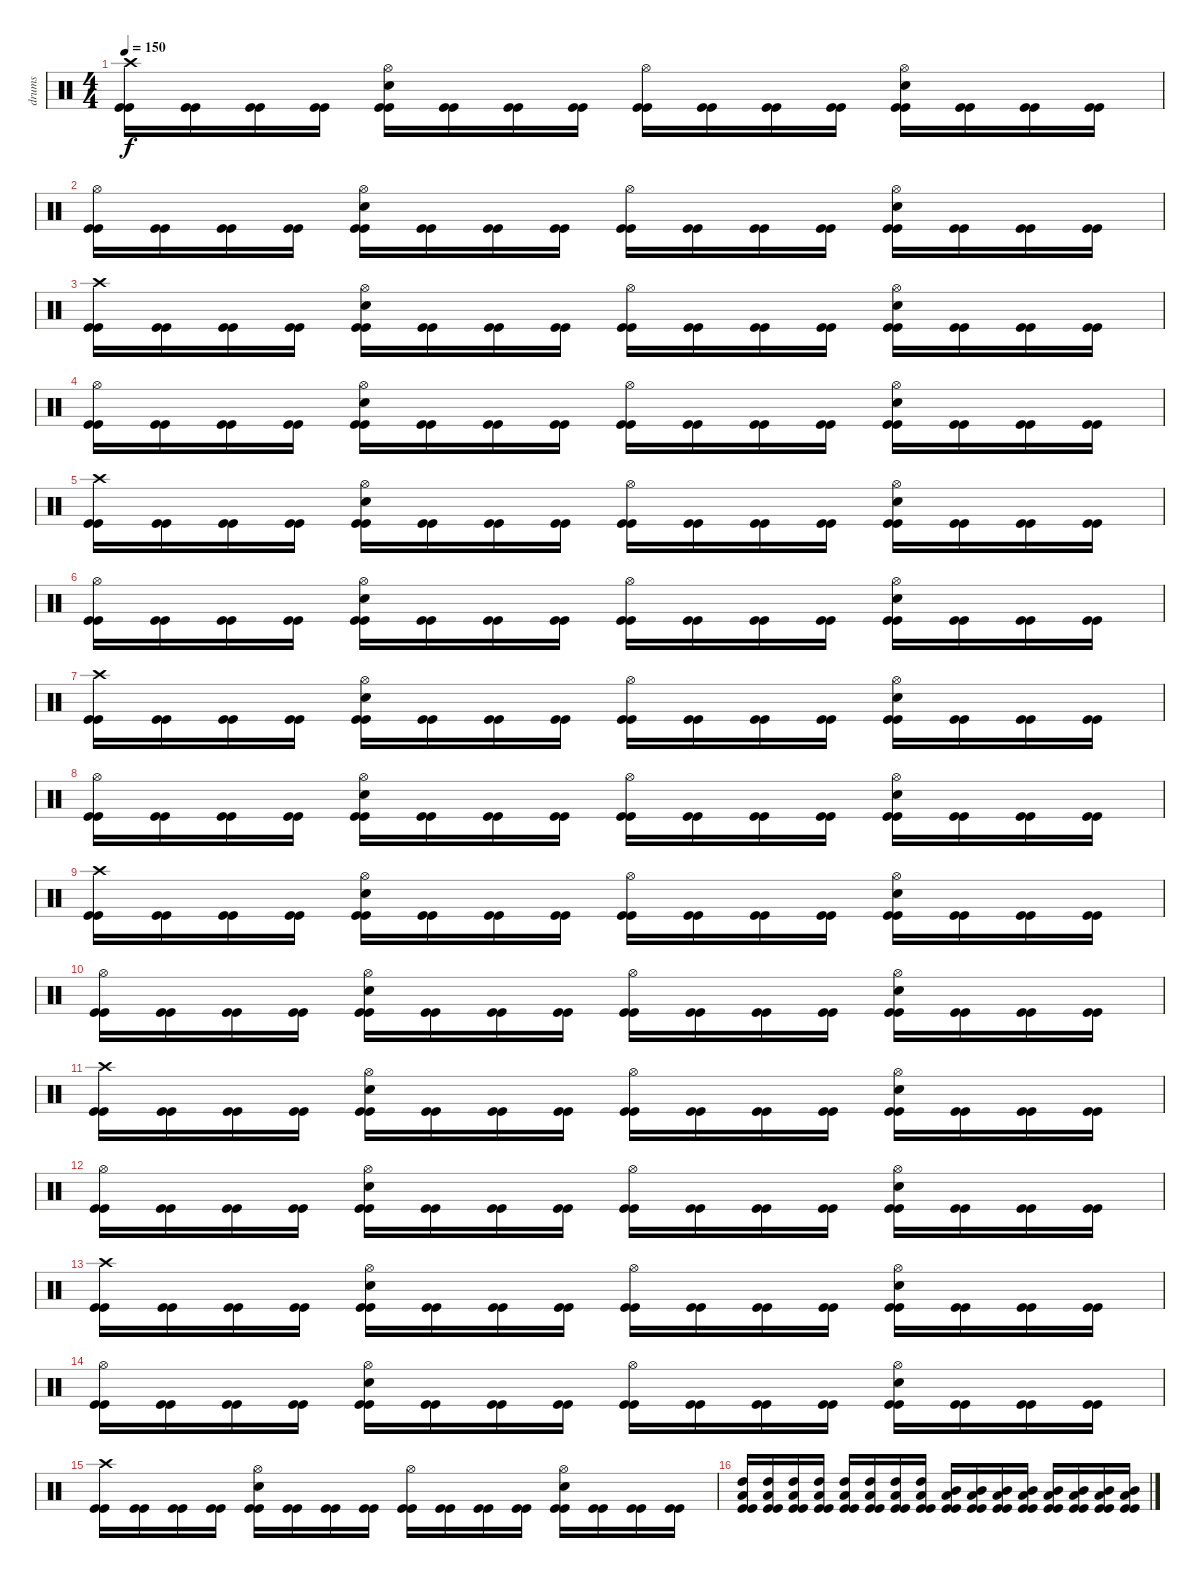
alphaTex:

\track ("drums" "drums") {instrument percussion}
\staff {score}
\articulation defaults
\ts (4 4)
\tempo 150
\clef neutral
\ks c
("Crash high (hit)" "Kick (hit)" "Kick (hit)").16{dy f} ("Kick (hit)" "Kick (hit)").16 ("Kick (hit)" "Kick (hit)").16 ("Kick (hit)" "Kick (hit)").16 ("Electric Snare (hit)" "Hi-Hat (open)" "Kick (hit)" "Kick (hit)").16 ("Kick (hit)" "Kick (hit)").16 ("Kick (hit)" "Kick (hit)").16 ("Kick (hit)" "Kick (hit)").16 ("Hi-Hat (open)" "Kick (hit)" "Kick (hit)").16 ("Kick (hit)" "Kick (hit)").16 ("Kick (hit)" "Kick (hit)").16 ("Kick (hit)" "Kick (hit)").16 ("Electric Snare (hit)" "Hi-Hat (open)" "Kick (hit)" "Kick (hit)").16 ("Kick (hit)" "Kick (hit)").16 ("Kick (hit)" "Kick (hit)").16 ("Kick (hit)" "Kick (hit)").16 |
("Hi-Hat (open)" "Kick (hit)" "Kick (hit)").16 ("Kick (hit)" "Kick (hit)").16 ("Kick (hit)" "Kick (hit)").16 ("Kick (hit)" "Kick (hit)").16 ("Electric Snare (hit)" "Hi-Hat (open)" "Kick (hit)" "Kick (hit)").16 ("Kick (hit)" "Kick (hit)").16 ("Kick (hit)" "Kick (hit)").16 ("Kick (hit)" "Kick (hit)").16 ("Hi-Hat (open)" "Kick (hit)" "Kick (hit)").16 ("Kick (hit)" "Kick (hit)").16 ("Kick (hit)" "Kick (hit)").16 ("Kick (hit)" "Kick (hit)").16 ("Electric Snare (hit)" "Hi-Hat (open)" "Kick (hit)" "Kick (hit)").16 ("Kick (hit)" "Kick (hit)").16 ("Kick (hit)" "Kick (hit)").16 ("Kick (hit)" "Kick (hit)").16 |
("Crash high (hit)" "Kick (hit)" "Kick (hit)").16 ("Kick (hit)" "Kick (hit)").16 ("Kick (hit)" "Kick (hit)").16 ("Kick (hit)" "Kick (hit)").16 ("Electric Snare (hit)" "Hi-Hat (open)" "Kick (hit)" "Kick (hit)").16 ("Kick (hit)" "Kick (hit)").16 ("Kick (hit)" "Kick (hit)").16 ("Kick (hit)" "Kick (hit)").16 ("Hi-Hat (open)" "Kick (hit)" "Kick (hit)").16 ("Kick (hit)" "Kick (hit)").16 ("Kick (hit)" "Kick (hit)").16 ("Kick (hit)" "Kick (hit)").16 ("Electric Snare (hit)" "Hi-Hat (open)" "Kick (hit)" "Kick (hit)").16 ("Kick (hit)" "Kick (hit)").16 ("Kick (hit)" "Kick (hit)").16 ("Kick (hit)" "Kick (hit)").16 |
("Hi-Hat (open)" "Kick (hit)" "Kick (hit)").16 ("Kick (hit)" "Kick (hit)").16 ("Kick (hit)" "Kick (hit)").16 ("Kick (hit)" "Kick (hit)").16 ("Electric Snare (hit)" "Hi-Hat (open)" "Kick (hit)" "Kick (hit)").16 ("Kick (hit)" "Kick (hit)").16 ("Kick (hit)" "Kick (hit)").16 ("Kick (hit)" "Kick (hit)").16 ("Hi-Hat (open)" "Kick (hit)" "Kick (hit)").16 ("Kick (hit)" "Kick (hit)").16 ("Kick (hit)" "Kick (hit)").16 ("Kick (hit)" "Kick (hit)").16 ("Electric Snare (hit)" "Hi-Hat (open)" "Kick (hit)" "Kick (hit)").16 ("Kick (hit)" "Kick (hit)").16 ("Kick (hit)" "Kick (hit)").16 ("Kick (hit)" "Kick (hit)").16 |
("Crash high (hit)" "Kick (hit)" "Kick (hit)").16 ("Kick (hit)" "Kick (hit)").16 ("Kick (hit)" "Kick (hit)").16 ("Kick (hit)" "Kick (hit)").16 ("Electric Snare (hit)" "Hi-Hat (open)" "Kick (hit)" "Kick (hit)").16 ("Kick (hit)" "Kick (hit)").16 ("Kick (hit)" "Kick (hit)").16 ("Kick (hit)" "Kick (hit)").16 ("Hi-Hat (open)" "Kick (hit)" "Kick (hit)").16 ("Kick (hit)" "Kick (hit)").16 ("Kick (hit)" "Kick (hit)").16 ("Kick (hit)" "Kick (hit)").16 ("Electric Snare (hit)" "Hi-Hat (open)" "Kick (hit)" "Kick (hit)").16 ("Kick (hit)" "Kick (hit)").16 ("Kick (hit)" "Kick (hit)").16 ("Kick (hit)" "Kick (hit)").16 |
("Hi-Hat (open)" "Kick (hit)" "Kick (hit)").16 ("Kick (hit)" "Kick (hit)").16 ("Kick (hit)" "Kick (hit)").16 ("Kick (hit)" "Kick (hit)").16 ("Electric Snare (hit)" "Hi-Hat (open)" "Kick (hit)" "Kick (hit)").16 ("Kick (hit)" "Kick (hit)").16 ("Kick (hit)" "Kick (hit)").16 ("Kick (hit)" "Kick (hit)").16 ("Hi-Hat (open)" "Kick (hit)" "Kick (hit)").16 ("Kick (hit)" "Kick (hit)").16 ("Kick (hit)" "Kick (hit)").16 ("Kick (hit)" "Kick (hit)").16 ("Electric Snare (hit)" "Hi-Hat (open)" "Kick (hit)" "Kick (hit)").16 ("Kick (hit)" "Kick (hit)").16 ("Kick (hit)" "Kick (hit)").16 ("Kick (hit)" "Kick (hit)").16 |
("Crash high (hit)" "Kick (hit)" "Kick (hit)").16 ("Kick (hit)" "Kick (hit)").16 ("Kick (hit)" "Kick (hit)").16 ("Kick (hit)" "Kick (hit)").16 ("Electric Snare (hit)" "Hi-Hat (open)" "Kick (hit)" "Kick (hit)").16 ("Kick (hit)" "Kick (hit)").16 ("Kick (hit)" "Kick (hit)").16 ("Kick (hit)" "Kick (hit)").16 ("Hi-Hat (open)" "Kick (hit)" "Kick (hit)").16 ("Kick (hit)" "Kick (hit)").16 ("Kick (hit)" "Kick (hit)").16 ("Kick (hit)" "Kick (hit)").16 ("Electric Snare (hit)" "Hi-Hat (open)" "Kick (hit)" "Kick (hit)").16 ("Kick (hit)" "Kick (hit)").16 ("Kick (hit)" "Kick (hit)").16 ("Kick (hit)" "Kick (hit)").16 |
("Hi-Hat (open)" "Kick (hit)" "Kick (hit)").16 ("Kick (hit)" "Kick (hit)").16 ("Kick (hit)" "Kick (hit)").16 ("Kick (hit)" "Kick (hit)").16 ("Electric Snare (hit)" "Hi-Hat (open)" "Kick (hit)" "Kick (hit)").16 ("Kick (hit)" "Kick (hit)").16 ("Kick (hit)" "Kick (hit)").16 ("Kick (hit)" "Kick (hit)").16 ("Hi-Hat (open)" "Kick (hit)" "Kick (hit)").16 ("Kick (hit)" "Kick (hit)").16 ("Kick (hit)" "Kick (hit)").16 ("Kick (hit)" "Kick (hit)").16 ("Electric Snare (hit)" "Hi-Hat (open)" "Kick (hit)" "Kick (hit)").16 ("Kick (hit)" "Kick (hit)").16 ("Kick (hit)" "Kick (hit)").16 ("Kick (hit)" "Kick (hit)").16 |
("Crash high (hit)" "Kick (hit)" "Kick (hit)").16 ("Kick (hit)" "Kick (hit)").16 ("Kick (hit)" "Kick (hit)").16 ("Kick (hit)" "Kick (hit)").16 ("Electric Snare (hit)" "Hi-Hat (open)" "Kick (hit)" "Kick (hit)").16 ("Kick (hit)" "Kick (hit)").16 ("Kick (hit)" "Kick (hit)").16 ("Kick (hit)" "Kick (hit)").16 ("Hi-Hat (open)" "Kick (hit)" "Kick (hit)").16 ("Kick (hit)" "Kick (hit)").16 ("Kick (hit)" "Kick (hit)").16 ("Kick (hit)" "Kick (hit)").16 ("Electric Snare (hit)" "Hi-Hat (open)" "Kick (hit)" "Kick (hit)").16 ("Kick (hit)" "Kick (hit)").16 ("Kick (hit)" "Kick (hit)").16 ("Kick (hit)" "Kick (hit)").16 |
("Hi-Hat (open)" "Kick (hit)" "Kick (hit)").16 ("Kick (hit)" "Kick (hit)").16 ("Kick (hit)" "Kick (hit)").16 ("Kick (hit)" "Kick (hit)").16 ("Electric Snare (hit)" "Hi-Hat (open)" "Kick (hit)" "Kick (hit)").16 ("Kick (hit)" "Kick (hit)").16 ("Kick (hit)" "Kick (hit)").16 ("Kick (hit)" "Kick (hit)").16 ("Hi-Hat (open)" "Kick (hit)" "Kick (hit)").16 ("Kick (hit)" "Kick (hit)").16 ("Kick (hit)" "Kick (hit)").16 ("Kick (hit)" "Kick (hit)").16 ("Electric Snare (hit)" "Hi-Hat (open)" "Kick (hit)" "Kick (hit)").16 ("Kick (hit)" "Kick (hit)").16 ("Kick (hit)" "Kick (hit)").16 ("Kick (hit)" "Kick (hit)").16 |
("Crash high (hit)" "Kick (hit)" "Kick (hit)").16 ("Kick (hit)" "Kick (hit)").16 ("Kick (hit)" "Kick (hit)").16 ("Kick (hit)" "Kick (hit)").16 ("Electric Snare (hit)" "Hi-Hat (open)" "Kick (hit)" "Kick (hit)").16 ("Kick (hit)" "Kick (hit)").16 ("Kick (hit)" "Kick (hit)").16 ("Kick (hit)" "Kick (hit)").16 ("Hi-Hat (open)" "Kick (hit)" "Kick (hit)").16 ("Kick (hit)" "Kick (hit)").16 ("Kick (hit)" "Kick (hit)").16 ("Kick (hit)" "Kick (hit)").16 ("Electric Snare (hit)" "Hi-Hat (open)" "Kick (hit)" "Kick (hit)").16 ("Kick (hit)" "Kick (hit)").16 ("Kick (hit)" "Kick (hit)").16 ("Kick (hit)" "Kick (hit)").16 |
("Hi-Hat (open)" "Kick (hit)" "Kick (hit)").16 ("Kick (hit)" "Kick (hit)").16 ("Kick (hit)" "Kick (hit)").16 ("Kick (hit)" "Kick (hit)").16 ("Electric Snare (hit)" "Hi-Hat (open)" "Kick (hit)" "Kick (hit)").16 ("Kick (hit)" "Kick (hit)").16 ("Kick (hit)" "Kick (hit)").16 ("Kick (hit)" "Kick (hit)").16 ("Hi-Hat (open)" "Kick (hit)" "Kick (hit)").16 ("Kick (hit)" "Kick (hit)").16 ("Kick (hit)" "Kick (hit)").16 ("Kick (hit)" "Kick (hit)").16 ("Electric Snare (hit)" "Hi-Hat (open)" "Kick (hit)" "Kick (hit)").16 ("Kick (hit)" "Kick (hit)").16 ("Kick (hit)" "Kick (hit)").16 ("Kick (hit)" "Kick (hit)").16 |
("Crash high (hit)" "Kick (hit)" "Kick (hit)").16 ("Kick (hit)" "Kick (hit)").16 ("Kick (hit)" "Kick (hit)").16 ("Kick (hit)" "Kick (hit)").16 ("Electric Snare (hit)" "Hi-Hat (open)" "Kick (hit)" "Kick (hit)").16 ("Kick (hit)" "Kick (hit)").16 ("Kick (hit)" "Kick (hit)").16 ("Kick (hit)" "Kick (hit)").16 ("Hi-Hat (open)" "Kick (hit)" "Kick (hit)").16 ("Kick (hit)" "Kick (hit)").16 ("Kick (hit)" "Kick (hit)").16 ("Kick (hit)" "Kick (hit)").16 ("Electric Snare (hit)" "Hi-Hat (open)" "Kick (hit)" "Kick (hit)").16 ("Kick (hit)" "Kick (hit)").16 ("Kick (hit)" "Kick (hit)").16 ("Kick (hit)" "Kick (hit)").16 |
("Hi-Hat (open)" "Kick (hit)" "Kick (hit)").16 ("Kick (hit)" "Kick (hit)").16 ("Kick (hit)" "Kick (hit)").16 ("Kick (hit)" "Kick (hit)").16 ("Electric Snare (hit)" "Hi-Hat (open)" "Kick (hit)" "Kick (hit)").16 ("Kick (hit)" "Kick (hit)").16 ("Kick (hit)" "Kick (hit)").16 ("Kick (hit)" "Kick (hit)").16 ("Hi-Hat (open)" "Kick (hit)" "Kick (hit)").16 ("Kick (hit)" "Kick (hit)").16 ("Kick (hit)" "Kick (hit)").16 ("Kick (hit)" "Kick (hit)").16 ("Electric Snare (hit)" "Hi-Hat (open)" "Kick (hit)" "Kick (hit)").16 ("Kick (hit)" "Kick (hit)").16 ("Kick (hit)" "Kick (hit)").16 ("Kick (hit)" "Kick (hit)").16 |
("Crash high (hit)" "Kick (hit)" "Kick (hit)").16 ("Kick (hit)" "Kick (hit)").16 ("Kick (hit)" "Kick (hit)").16 ("Kick (hit)" "Kick (hit)").16 ("Electric Snare (hit)" "Hi-Hat (open)" "Kick (hit)" "Kick (hit)").16 ("Kick (hit)" "Kick (hit)").16 ("Kick (hit)" "Kick (hit)").16 ("Kick (hit)" "Kick (hit)").16 ("Hi-Hat (open)" "Kick (hit)" "Kick (hit)").16 ("Kick (hit)" "Kick (hit)").16 ("Kick (hit)" "Kick (hit)").16 ("Kick (hit)" "Kick (hit)").16 ("Electric Snare (hit)" "Hi-Hat (open)" "Kick (hit)" "Kick (hit)").16 ("Kick (hit)" "Kick (hit)").16 ("Kick (hit)" "Kick (hit)").16 ("Kick (hit)" "Kick (hit)").16 |
("High Tom (hit)" "Low Tom (hit)" "Kick (hit)" "Kick (hit)").16 ("High Tom (hit)" "Low Tom (hit)" "Kick (hit)" "Kick (hit)").16 ("High Tom (hit)" "Low Tom (hit)" "Kick (hit)" "Kick (hit)").16 ("High Tom (hit)" "Low Tom (hit)" "Kick (hit)" "Kick (hit)").16 ("High Tom (hit)" "Low Tom (hit)" "Kick (hit)" "Kick (hit)").16 ("High Tom (hit)" "Low Tom (hit)" "Kick (hit)" "Kick (hit)").16 ("High Tom (hit)" "Low Tom (hit)" "Kick (hit)" "Kick (hit)").16 ("High Tom (hit)" "Low Tom (hit)" "Kick (hit)" "Kick (hit)").16 ("Mid Tom (hit)" "Low Tom (hit)" "Kick (hit)" "Kick (hit)").16 ("Mid Tom (hit)" "Low Tom (hit)" "Kick (hit)" "Kick (hit)").16 ("Mid Tom (hit)" "Low Tom (hit)" "Kick (hit)" "Kick (hit)").16 ("Mid Tom (hit)" "Low Tom (hit)" "Kick (hit)" "Kick (hit)").16 ("Mid Tom (hit)" "Low Tom (hit)" "Kick (hit)" "Kick (hit)").16 ("Mid Tom (hit)" "Low Tom (hit)" "Kick (hit)" "Kick (hit)").16 ("Mid Tom (hit)" "Low Tom (hit)" "Kick (hit)" "Kick (hit)").16 ("Mid Tom (hit)" "Low Tom (hit)" "Kick (hit)" "Kick (hit)").16
